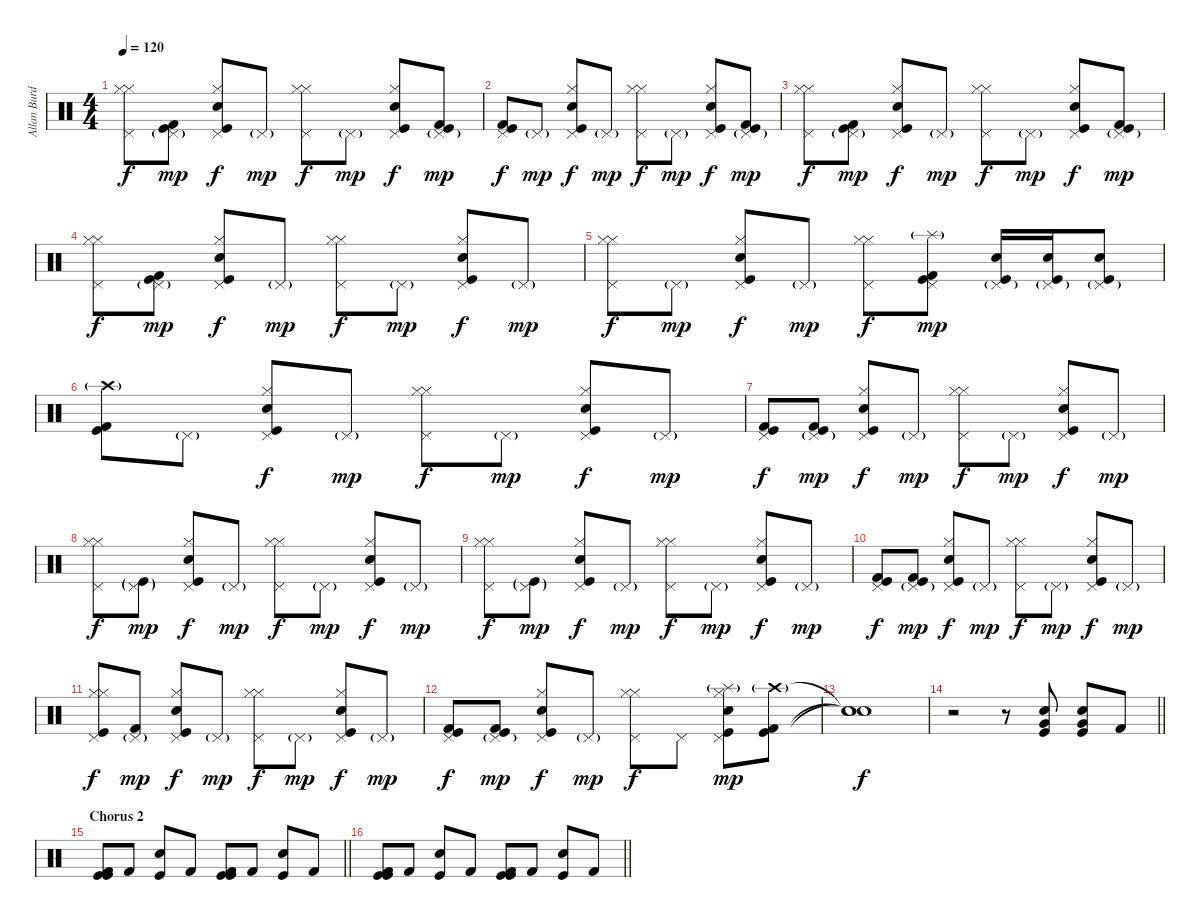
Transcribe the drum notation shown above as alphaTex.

\track ("Allan Burdeos(Drums)" "Allan Burd") {instrument percussion}
\staff {score}
\articulation defaults
\ts (4 4)
\tempo 120
\clef neutral
\ks c
("Pedal Hi-Hat (hit)" "Hi-Hat (closed)" "Hi-Hat (closed)").8{dy f} ("Pedal Hi-Hat (hit)"{g} "Kick (hit) 2" "Kick (hit)").8{dy mp} ("Pedal Hi-Hat (hit)" "Hi-Hat (closed)" "Kick (hit)" "Electric Snare (hit)").8{dy f} "Pedal Hi-Hat (hit)"{g}.8{dy mp} ("Pedal Hi-Hat (hit)" "Hi-Hat (closed)" "Hi-Hat (closed)").8{dy f} "Pedal Hi-Hat (hit)"{g}.8{dy mp} ("Pedal Hi-Hat (hit)" "Hi-Hat (closed)" "Kick (hit)" "Electric Snare (hit)").8{dy f} ("Pedal Hi-Hat (hit)"{g} "Kick (hit) 2" "Kick (hit)").8{dy mp} |
("Pedal Hi-Hat (hit)" "Kick (hit) 2" "Kick (hit)").8{dy f} "Pedal Hi-Hat (hit)"{g}.8{dy mp} ("Pedal Hi-Hat (hit)" "Hi-Hat (closed)" "Kick (hit)" "Electric Snare (hit)").8{dy f} "Pedal Hi-Hat (hit)"{g}.8{dy mp} ("Pedal Hi-Hat (hit)" "Hi-Hat (closed)" "Hi-Hat (closed)").8{dy f} "Pedal Hi-Hat (hit)"{g}.8{dy mp} ("Pedal Hi-Hat (hit)" "Hi-Hat (closed)" "Kick (hit)" "Electric Snare (hit)").8{dy f} ("Pedal Hi-Hat (hit)"{g} "Kick (hit) 2" "Kick (hit)").8{dy mp} |
("Pedal Hi-Hat (hit)" "Hi-Hat (closed)" "Hi-Hat (closed)").8{dy f} ("Pedal Hi-Hat (hit)"{g} "Kick (hit) 2" "Kick (hit)").8{dy mp} ("Pedal Hi-Hat (hit)" "Hi-Hat (closed)" "Kick (hit)" "Electric Snare (hit)").8{dy f} "Pedal Hi-Hat (hit)"{g}.8{dy mp} ("Pedal Hi-Hat (hit)" "Hi-Hat (closed)" "Hi-Hat (closed)").8{dy f} "Pedal Hi-Hat (hit)"{g}.8{dy mp} ("Pedal Hi-Hat (hit)" "Hi-Hat (closed)" "Kick (hit)" "Electric Snare (hit)").8{dy f} ("Pedal Hi-Hat (hit)"{g} "Kick (hit) 2" "Kick (hit)").8{dy mp} |
("Pedal Hi-Hat (hit)" "Hi-Hat (closed)" "Hi-Hat (closed)").8{dy f} ("Pedal Hi-Hat (hit)"{g} "Kick (hit) 2" "Kick (hit)").8{dy mp} ("Pedal Hi-Hat (hit)" "Hi-Hat (closed)" "Kick (hit)" "Electric Snare (hit)").8{dy f} "Pedal Hi-Hat (hit)"{g}.8{dy mp} ("Pedal Hi-Hat (hit)" "Hi-Hat (closed)" "Hi-Hat (closed)").8{dy f} "Pedal Hi-Hat (hit)"{g}.8{dy mp} ("Pedal Hi-Hat (hit)" "Hi-Hat (closed)" "Kick (hit)" "Electric Snare (hit)").8{dy f} "Pedal Hi-Hat (hit)"{g}.8{dy mp} |
("Pedal Hi-Hat (hit)" "Hi-Hat (closed)" "Hi-Hat (closed)").8{dy f} "Pedal Hi-Hat (hit)"{g}.8{dy mp} ("Pedal Hi-Hat (hit)" "Hi-Hat (closed)" "Kick (hit)" "Electric Snare (hit)").8{dy f} "Pedal Hi-Hat (hit)"{g}.8{dy mp} ("Pedal Hi-Hat (hit)" "Hi-Hat (closed)" "Hi-Hat (closed)").8{dy f} ("Pedal Hi-Hat (hit)" "Kick (hit) 2" "Kick (hit)" "Splash (hit)"{g}).8{dy mp} ("Pedal Hi-Hat (hit)"{g} "Kick (hit)" "Electric Snare (hit)").16 ("Pedal Hi-Hat (hit)"{g} "Kick (hit)" "Electric Snare (hit)").16 ("Pedal Hi-Hat (hit)"{g} "Kick (hit)" "Electric Snare (hit)").8 |
("Crash high (hit)"{g} "Kick (hit) 2" "Kick (hit)").8 "Pedal Hi-Hat (hit)"{g}.8 ("Pedal Hi-Hat (hit)" "Hi-Hat (closed)" "Kick (hit)" "Electric Snare (hit)").8{dy f} "Pedal Hi-Hat (hit)"{g}.8{dy mp} ("Pedal Hi-Hat (hit)" "Hi-Hat (closed)" "Hi-Hat (closed)").8{dy f} "Pedal Hi-Hat (hit)"{g}.8{dy mp} ("Pedal Hi-Hat (hit)" "Hi-Hat (closed)" "Kick (hit)" "Electric Snare (hit)").8{dy f} "Pedal Hi-Hat (hit)"{g}.8{dy mp} |
("Pedal Hi-Hat (hit)" "Kick (hit) 2" "Kick (hit)").8{dy f} ("Pedal Hi-Hat (hit)"{g} "Kick (hit) 2" "Kick (hit)").8{dy mp} ("Pedal Hi-Hat (hit)" "Hi-Hat (closed)" "Kick (hit)" "Electric Snare (hit)").8{dy f} "Pedal Hi-Hat (hit)"{g}.8{dy mp} ("Pedal Hi-Hat (hit)" "Hi-Hat (closed)" "Hi-Hat (closed)").8{dy f} "Pedal Hi-Hat (hit)"{g}.8{dy mp} ("Pedal Hi-Hat (hit)" "Hi-Hat (closed)" "Kick (hit)" "Electric Snare (hit)").8{dy f} "Pedal Hi-Hat (hit)"{g}.8{dy mp} |
("Pedal Hi-Hat (hit)" "Hi-Hat (closed)" "Hi-Hat (closed)").8{dy f} ("Pedal Hi-Hat (hit)"{g} "Kick (hit)"{g}).8{dy mp} ("Pedal Hi-Hat (hit)" "Hi-Hat (closed)" "Kick (hit)" "Electric Snare (hit)").8{dy f} "Pedal Hi-Hat (hit)"{g}.8{dy mp} ("Pedal Hi-Hat (hit)" "Hi-Hat (closed)" "Hi-Hat (closed)").8{dy f} "Pedal Hi-Hat (hit)"{g}.8{dy mp} ("Pedal Hi-Hat (hit)" "Hi-Hat (closed)" "Kick (hit)" "Electric Snare (hit)").8{dy f} "Pedal Hi-Hat (hit)"{g}.8{dy mp} |
("Pedal Hi-Hat (hit)" "Hi-Hat (closed)" "Hi-Hat (closed)").8{dy f} ("Pedal Hi-Hat (hit)"{g} "Kick (hit)"{g}).8{dy mp} ("Pedal Hi-Hat (hit)" "Hi-Hat (closed)" "Kick (hit)" "Electric Snare (hit)").8{dy f} "Pedal Hi-Hat (hit)"{g}.8{dy mp} ("Pedal Hi-Hat (hit)" "Hi-Hat (closed)" "Hi-Hat (closed)").8{dy f} "Pedal Hi-Hat (hit)"{g}.8{dy mp} ("Pedal Hi-Hat (hit)" "Hi-Hat (closed)" "Kick (hit)" "Electric Snare (hit)").8{dy f} "Pedal Hi-Hat (hit)"{g}.8{dy mp} |
("Pedal Hi-Hat (hit)" "Kick (hit) 2" "Kick (hit)").8{dy f} ("Pedal Hi-Hat (hit)"{g} "Kick (hit) 2" "Kick (hit)").8{dy mp} ("Pedal Hi-Hat (hit)" "Hi-Hat (closed)" "Kick (hit)" "Electric Snare (hit)").8{dy f} "Pedal Hi-Hat (hit)"{g}.8{dy mp} ("Pedal Hi-Hat (hit)" "Hi-Hat (closed)" "Hi-Hat (closed)").8{dy f} "Pedal Hi-Hat (hit)"{g}.8{dy mp} ("Pedal Hi-Hat (hit)" "Hi-Hat (closed)" "Kick (hit)" "Electric Snare (hit)").8{dy f} "Pedal Hi-Hat (hit)"{g}.8{dy mp} |
("Pedal Hi-Hat (hit)" "Hi-Hat (closed)" "Hi-Hat (closed)" "Kick (hit)").8{dy f} ("Pedal Hi-Hat (hit)"{g} "Kick (hit) 2").8{dy mp} ("Pedal Hi-Hat (hit)" "Hi-Hat (closed)" "Kick (hit)" "Electric Snare (hit)").8{dy f} "Pedal Hi-Hat (hit)"{g}.8{dy mp} ("Pedal Hi-Hat (hit)" "Hi-Hat (closed)" "Hi-Hat (closed)").8{dy f} "Pedal Hi-Hat (hit)"{g}.8{dy mp} ("Pedal Hi-Hat (hit)" "Hi-Hat (closed)" "Kick (hit)" "Electric Snare (hit)").8{dy f} "Pedal Hi-Hat (hit)"{g}.8{dy mp} |
("Pedal Hi-Hat (hit)" "Kick (hit) 2" "Kick (hit)").8{dy f} ("Pedal Hi-Hat (hit)"{g} "Kick (hit) 2" "Kick (hit)").8{dy mp} ("Pedal Hi-Hat (hit)" "Hi-Hat (closed)" "Kick (hit)" "Electric Snare (hit)").8{dy f} "Pedal Hi-Hat (hit)"{g}.8{dy mp} ("Pedal Hi-Hat (hit)" "Hi-Hat (closed)" "Hi-Hat (closed)").8{dy f} "Pedal Hi-Hat (hit)".8 ("Pedal Hi-Hat (hit)" "Hi-Hat (closed)" "Kick (hit)" "Electric Snare (hit)" "Splash (hit)"{g}).8{dy mp} ("Crash high (hit)"{g} "Kick (hit)" "Kick (hit) 2").8 |
("Snare (hit)"{t} "Snare (hit)"{t} "Snare (hit)"{t}).1{dy f} |
\barLineRight lightlight
r.2 r.8 ("Kick (hit)" "Electric Snare (hit)" "Very Low Tom (hit)").8 ("Kick (hit)" "Electric Snare (hit)" "Very Low Tom (hit)").8 "Kick (hit) 2".8 |
\section ("" "Chorus 2")
\barLineRight lightlight
("Kick (hit)" "Kick (hit)" "Kick (hit) 2").8{bd 30} "Kick (hit) 2".8 ("Kick (hit)" "Electric Snare (hit)").8 "Kick (hit) 2".8 ("Kick (hit)" "Kick (hit)" "Kick (hit) 2").8 "Kick (hit) 2".8 ("Kick (hit)" "Electric Snare (hit)").8 "Kick (hit) 2".8 |
\barLineRight lightlight
("Kick (hit)" "Kick (hit)" "Kick (hit) 2").8{bd 60} "Kick (hit) 2".8 ("Kick (hit)" "Electric Snare (hit)").8 "Kick (hit) 2".8 ("Kick (hit)" "Kick (hit)" "Kick (hit) 2").8 "Kick (hit) 2".8 ("Kick (hit)" "Electric Snare (hit)").8 "Kick (hit) 2".8
